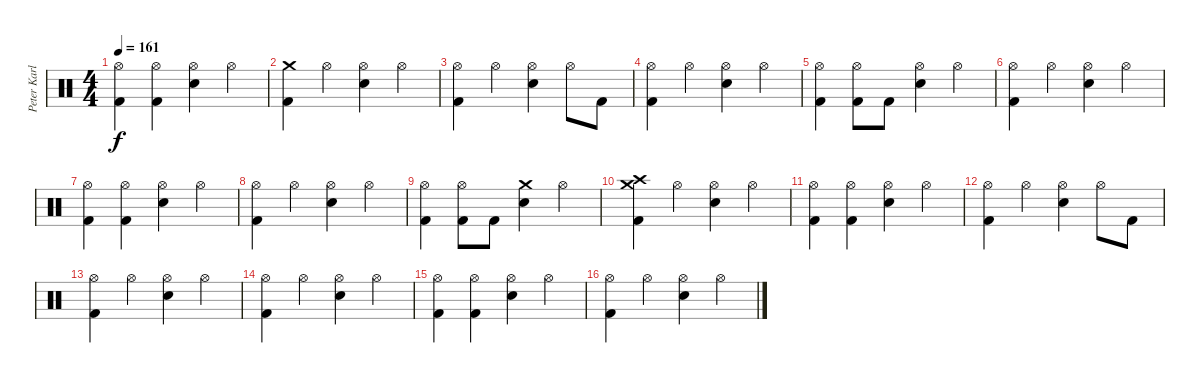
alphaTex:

\track ("Peter Karlsson" "Peter Karl") {instrument percussion}
\staff {score}
\articulation defaults
\ts (4 4)
\tempo 161
\clef neutral
\ks c
("Hi-Hat (open)" "Kick (hit) 2").4{dy f} ("Hi-Hat (open)" "Kick (hit) 2").4 ("Hi-Hat (open)" "Snare (hit) 2").4 "Hi-Hat (open)".4 |
("Crash medium (hit)" "Kick (hit) 2").4 "Hi-Hat (open)".4 ("Hi-Hat (open)" "Snare (hit) 2").4 "Hi-Hat (open)".4 |
("Hi-Hat (open)" "Kick (hit) 2").4 "Hi-Hat (open)".4 ("Hi-Hat (open)" "Snare (hit) 2").4 "Hi-Hat (open)".8 "Kick (hit) 2".8 |
("Hi-Hat (open)" "Kick (hit) 2").4 "Hi-Hat (open)".4 ("Hi-Hat (open)" "Snare (hit) 2").4 "Hi-Hat (open)".4 |
("Hi-Hat (open)" "Kick (hit) 2").4 ("Hi-Hat (open)" "Kick (hit) 2").8 "Kick (hit) 2".8 ("Hi-Hat (open)" "Snare (hit) 2").4 "Hi-Hat (open)".4 |
("Hi-Hat (open)" "Kick (hit) 2").4 "Hi-Hat (open)".4 ("Hi-Hat (open)" "Snare (hit) 2").4 "Hi-Hat (open)".4 |
("Hi-Hat (open)" "Kick (hit) 2").4 ("Hi-Hat (open)" "Kick (hit) 2").4 ("Hi-Hat (open)" "Snare (hit) 2").4 "Hi-Hat (open)".4 |
("Hi-Hat (open)" "Kick (hit) 2").4 "Hi-Hat (open)".4 ("Hi-Hat (open)" "Snare (hit) 2").4 "Hi-Hat (open)".4 |
("Hi-Hat (open)" "Kick (hit) 2").4 ("Hi-Hat (open)" "Kick (hit) 2").8 "Kick (hit) 2".8 ("Crash medium (hit)" "Snare (hit) 2").4 "Hi-Hat (open)".4 |
("Crash high (hit)" "Crash medium (hit)" "Kick (hit) 2").4 "Hi-Hat (open)".4 ("Hi-Hat (open)" "Snare (hit) 2").4 "Hi-Hat (open)".4 |
("Hi-Hat (open)" "Kick (hit) 2").4 ("Hi-Hat (open)" "Kick (hit) 2").4 ("Hi-Hat (open)" "Snare (hit) 2").4 "Hi-Hat (open)".4 |
("Hi-Hat (open)" "Kick (hit) 2").4 "Hi-Hat (open)".4 ("Hi-Hat (open)" "Snare (hit) 2").4 "Hi-Hat (open)".8 "Kick (hit) 2".8 |
("Hi-Hat (open)" "Kick (hit) 2").4 "Hi-Hat (open)".4 ("Hi-Hat (open)" "Snare (hit) 2").4 "Hi-Hat (open)".4 |
("Hi-Hat (open)" "Kick (hit) 2").4 "Hi-Hat (open)".4 ("Hi-Hat (open)" "Snare (hit) 2").4 "Hi-Hat (open)".4 |
("Hi-Hat (open)" "Kick (hit) 2").4 ("Hi-Hat (open)" "Kick (hit) 2").4 ("Hi-Hat (open)" "Snare (hit) 2").4 "Hi-Hat (open)".4 |
("Hi-Hat (open)" "Kick (hit) 2").4 "Hi-Hat (open)".4 ("Hi-Hat (open)" "Snare (hit) 2").4 "Hi-Hat (open)".4
